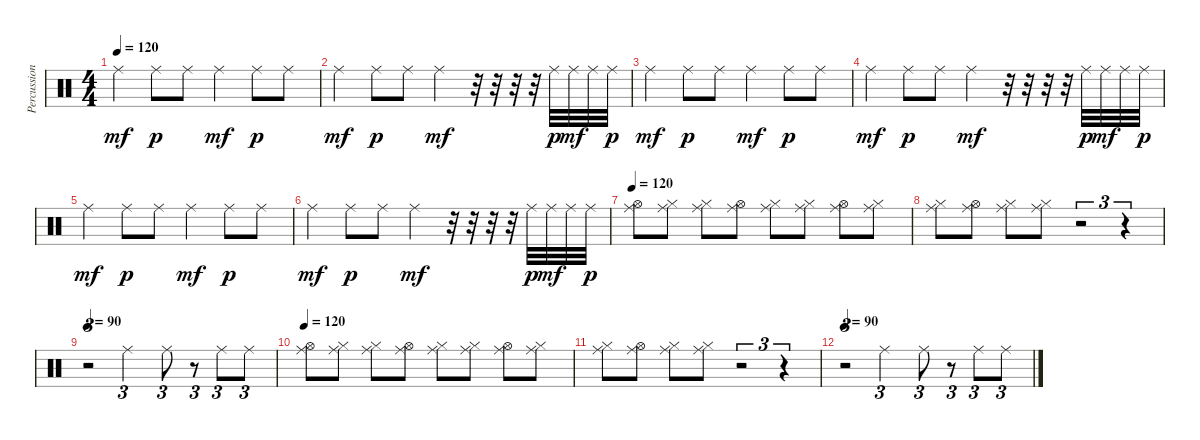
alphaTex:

\track ("Percussion" "Percussion") {instrument percussion}
\staff {score}
\articulation defaults
\ts (4 4)
\tempo 120
\clef neutral
\ks c "Ride (middle)".4{dy mf} "Ride (middle)".8{dy p} "Ride (middle)".8 "Ride (middle)".4{dy mf} "Ride (middle)".8{dy p} "Ride (middle)".8
|
"Ride (middle)".4{dy mf} "Ride (middle)".8{dy p} "Ride (middle)".8 "Ride (middle)".4{dy mf} r.32 r.32 r.32 r.32 "Ride (middle)".32{dy p} "Ride (middle)".32{dy mf} "Ride (middle)".32 "Ride (middle)".32{dy p} |
"Ride (middle)".4{dy mf} "Ride (middle)".8{dy p} "Ride (middle)".8 "Ride (middle)".4{dy mf} "Ride (middle)".8{dy p} "Ride (middle)".8 |
"Ride (middle)".4{dy mf} "Ride (middle)".8{dy p} "Ride (middle)".8 "Ride (middle)".4{dy mf} r.32 r.32 r.32 r.32 "Ride (middle)".32{dy p} "Ride (middle)".32{dy mf} "Ride (middle)".32 "Ride (middle)".32{dy p} |
"Ride (middle)".4{dy mf} "Ride (middle)".8{dy p} "Ride (middle)".8 "Ride (middle)".4{dy mf} "Ride (middle)".8{dy p} "Ride (middle)".8 |
"Ride (middle)".4{dy mf} "Ride (middle)".8{dy p} "Ride (middle)".8 "Ride (middle)".4{dy mf} r.32 r.32 r.32 r.32 "Ride (middle)".32{dy p} "Ride (middle)".32{dy mf} "Ride (middle)".32 "Ride (middle)".32{dy p} |
\tempo 120
("Hi-Hat (open)" "Ride (middle)").8 ("Ride (middle)" "Hi-Hat (closed)").8 ("Ride (middle)" "Hi-Hat (closed)").8 ("Hi-Hat (open)" "Ride (middle)").8 ("Ride (middle)" "Hi-Hat (closed)").8 ("Ride (middle)" "Hi-Hat (closed)").8 ("Hi-Hat (open)" "Ride (middle)").8 ("Ride (middle)" "Hi-Hat (closed)").8 |
("Ride (middle)" "Hi-Hat (closed)").8 ("Hi-Hat (open)" "Ride (middle)").8 ("Ride (middle)" "Hi-Hat (closed)").8 ("Ride (middle)" "Hi-Hat (closed)").8 r.2{tu (3 2)} r.4{tu (3 2)} |
\tempo 90
r.2{tu (3 2)} "Ride (middle)".2{tu (3 2)} "Ride (middle)".8{tu (3 2)} r.8{tu (3 2)} "Ride (middle)".8{tu (3 2)} "Ride (middle)".8{tu (3 2)} |
\tempo 120
("Hi-Hat (open)" "Ride (middle)").8 ("Ride (middle)" "Hi-Hat (closed)").8 ("Ride (middle)" "Hi-Hat (closed)").8 ("Hi-Hat (open)" "Ride (middle)").8 ("Ride (middle)" "Hi-Hat (closed)").8 ("Ride (middle)" "Hi-Hat (closed)").8 ("Hi-Hat (open)" "Ride (middle)").8 ("Ride (middle)" "Hi-Hat (closed)").8 |
("Ride (middle)" "Hi-Hat (closed)").8 ("Hi-Hat (open)" "Ride (middle)").8 ("Ride (middle)" "Hi-Hat (closed)").8 ("Ride (middle)" "Hi-Hat (closed)").8 r.2{tu (3 2)} r.4{tu (3 2)} |
\tempo 90
r.2{tu (3 2)} "Ride (middle)".2{tu (3 2)} "Ride (middle)".8{tu (3 2)} r.8{tu (3 2)} "Ride (middle)".8{tu (3 2)} "Ride (middle)".8{tu (3 2)}
